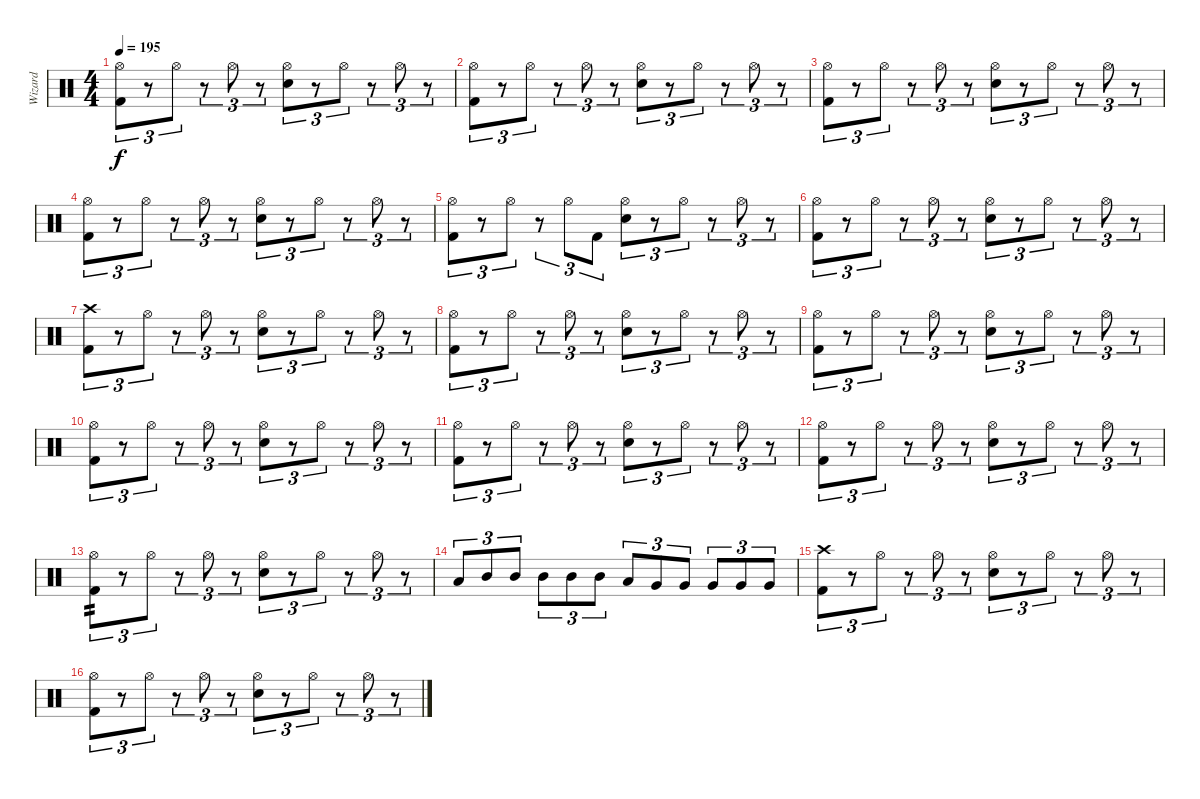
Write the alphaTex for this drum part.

\track ("Wizard" "Wizard") {instrument percussion}
\staff {score}
\articulation defaults
\ts (4 4)
\tempo 195
\clef neutral
\ks c
("Hi-Hat (open)" "Kick (hit) 2").8{tu (3 2) dy f} r.8{tu (3 2)} "Hi-Hat (open)".8{tu (3 2)} r.8{tu (3 2)} "Hi-Hat (open)".8{tu (3 2)} r.8{tu (3 2)} ("Hi-Hat (open)" "Snare (hit) 2").8{tu (3 2)} r.8{tu (3 2)} "Hi-Hat (open)".8{tu (3 2)} r.8{tu (3 2)} "Hi-Hat (open)".8{tu (3 2)} r.8{tu (3 2)} |
("Hi-Hat (open)" "Kick (hit) 2").8{tu (3 2)} r.8{tu (3 2)} "Hi-Hat (open)".8{tu (3 2)} r.8{tu (3 2)} "Hi-Hat (open)".8{tu (3 2)} r.8{tu (3 2)} ("Hi-Hat (open)" "Snare (hit) 2").8{tu (3 2)} r.8{tu (3 2)} "Hi-Hat (open)".8{tu (3 2)} r.8{tu (3 2)} "Hi-Hat (open)".8{tu (3 2)} r.8{tu (3 2)} |
("Hi-Hat (open)" "Kick (hit) 2").8{tu (3 2)} r.8{tu (3 2)} "Hi-Hat (open)".8{tu (3 2)} r.8{tu (3 2)} "Hi-Hat (open)".8{tu (3 2)} r.8{tu (3 2)} ("Hi-Hat (open)" "Snare (hit) 2").8{tu (3 2)} r.8{tu (3 2)} "Hi-Hat (open)".8{tu (3 2)} r.8{tu (3 2)} "Hi-Hat (open)".8{tu (3 2)} r.8{tu (3 2)} |
("Hi-Hat (open)" "Kick (hit) 2").8{tu (3 2)} r.8{tu (3 2)} "Hi-Hat (open)".8{tu (3 2)} r.8{tu (3 2)} "Hi-Hat (open)".8{tu (3 2)} r.8{tu (3 2)} ("Hi-Hat (open)" "Snare (hit) 2").8{tu (3 2)} r.8{tu (3 2)} "Hi-Hat (open)".8{tu (3 2)} r.8{tu (3 2)} "Hi-Hat (open)".8{tu (3 2)} r.8{tu (3 2)} |
("Hi-Hat (open)" "Kick (hit) 2").8{tu (3 2)} r.8{tu (3 2)} "Hi-Hat (open)".8{tu (3 2)} r.8{tu (3 2)} "Hi-Hat (open)".8{tu (3 2)} "Kick (hit) 2".8{tu (3 2)} ("Hi-Hat (open)" "Snare (hit) 2").8{tu (3 2)} r.8{tu (3 2)} "Hi-Hat (open)".8{tu (3 2)} r.8{tu (3 2)} "Hi-Hat (open)".8{tu (3 2)} r.8{tu (3 2)} |
("Hi-Hat (open)" "Kick (hit) 2").8{tu (3 2)} r.8{tu (3 2)} "Hi-Hat (open)".8{tu (3 2)} r.8{tu (3 2)} "Hi-Hat (open)".8{tu (3 2)} r.8{tu (3 2)} ("Hi-Hat (open)" "Snare (hit) 2").8{tu (3 2)} r.8{tu (3 2)} "Hi-Hat (open)".8{tu (3 2)} r.8{tu (3 2)} "Hi-Hat (open)".8{tu (3 2)} r.8{tu (3 2)} |
("Crash high (hit)" "Kick (hit) 2").8{tu (3 2)} r.8{tu (3 2)} "Hi-Hat (open)".8{tu (3 2)} r.8{tu (3 2)} "Hi-Hat (open)".8{tu (3 2)} r.8{tu (3 2)} ("Hi-Hat (open)" "Snare (hit) 2").8{tu (3 2)} r.8{tu (3 2)} "Hi-Hat (open)".8{tu (3 2)} r.8{tu (3 2)} "Hi-Hat (open)".8{tu (3 2)} r.8{tu (3 2)} |
("Hi-Hat (open)" "Kick (hit) 2").8{tu (3 2)} r.8{tu (3 2)} "Hi-Hat (open)".8{tu (3 2)} r.8{tu (3 2)} "Hi-Hat (open)".8{tu (3 2)} r.8{tu (3 2)} ("Hi-Hat (open)" "Snare (hit) 2").8{tu (3 2)} r.8{tu (3 2)} "Hi-Hat (open)".8{tu (3 2)} r.8{tu (3 2)} "Hi-Hat (open)".8{tu (3 2)} r.8{tu (3 2)} |
("Hi-Hat (open)" "Kick (hit) 2").8{tu (3 2)} r.8{tu (3 2)} "Hi-Hat (open)".8{tu (3 2)} r.8{tu (3 2)} "Hi-Hat (open)".8{tu (3 2)} r.8{tu (3 2)} ("Hi-Hat (open)" "Snare (hit) 2").8{tu (3 2)} r.8{tu (3 2)} "Hi-Hat (open)".8{tu (3 2)} r.8{tu (3 2)} "Hi-Hat (open)".8{tu (3 2)} r.8{tu (3 2)} |
("Hi-Hat (open)" "Kick (hit) 2").8{tu (3 2)} r.8{tu (3 2)} "Hi-Hat (open)".8{tu (3 2)} r.8{tu (3 2)} "Hi-Hat (open)".8{tu (3 2)} r.8{tu (3 2)} ("Hi-Hat (open)" "Snare (hit) 2").8{tu (3 2)} r.8{tu (3 2)} "Hi-Hat (open)".8{tu (3 2)} r.8{tu (3 2)} "Hi-Hat (open)".8{tu (3 2)} r.8{tu (3 2)} |
("Hi-Hat (open)" "Kick (hit) 2").8{tu (3 2)} r.8{tu (3 2)} "Hi-Hat (open)".8{tu (3 2)} r.8{tu (3 2)} "Hi-Hat (open)".8{tu (3 2)} r.8{tu (3 2)} ("Hi-Hat (open)" "Snare (hit) 2").8{tu (3 2)} r.8{tu (3 2)} "Hi-Hat (open)".8{tu (3 2)} r.8{tu (3 2)} "Hi-Hat (open)".8{tu (3 2)} r.8{tu (3 2)} |
("Hi-Hat (open)" "Kick (hit) 2").8{tu (3 2)} r.8{tu (3 2)} "Hi-Hat (open)".8{tu (3 2)} r.8{tu (3 2)} "Hi-Hat (open)".8{tu (3 2)} r.8{tu (3 2)} ("Hi-Hat (open)" "Snare (hit) 2").8{tu (3 2)} r.8{tu (3 2)} "Hi-Hat (open)".8{tu (3 2)} r.8{tu (3 2)} "Hi-Hat (open)".8{tu (3 2)} r.8{tu (3 2)} |
("Hi-Hat (open)" "Kick (hit) 2").8{tu (3 2) tp 2} r.8{tu (3 2)} "Hi-Hat (open)".8{tu (3 2)} r.8{tu (3 2)} "Hi-Hat (open)".8{tu (3 2)} r.8{tu (3 2)} ("Hi-Hat (open)" "Snare (hit) 2").8{tu (3 2)} r.8{tu (3 2)} "Hi-Hat (open)".8{tu (3 2)} r.8{tu (3 2)} "Hi-Hat (open)".8{tu (3 2)} r.8{tu (3 2)} |
"Low Tom (hit)".8{tu (3 2)} "Mid Tom (hit)".8{tu (3 2)} "Mid Tom (hit)".8{tu (3 2)} "Mid Tom (hit)".8{tu (3 2)} "Mid Tom (hit)".8{tu (3 2)} "Mid Tom (hit)".8{tu (3 2)} "Low Tom (hit)".8{tu (3 2)} "Very Low Tom (hit)".8{tu (3 2)} "Very Low Tom (hit)".8{tu (3 2)} "Very Low Tom (hit)".8{tu (3 2)} "Very Low Tom (hit)".8{tu (3 2)} "Very Low Tom (hit)".8{tu (3 2)} |
("Crash high (hit)" "Kick (hit) 2").8{tu (3 2)} r.8{tu (3 2)} "Hi-Hat (open)".8{tu (3 2)} r.8{tu (3 2)} "Hi-Hat (open)".8{tu (3 2)} r.8{tu (3 2)} ("Hi-Hat (open)" "Snare (hit) 2").8{tu (3 2)} r.8{tu (3 2)} "Hi-Hat (open)".8{tu (3 2)} r.8{tu (3 2)} "Hi-Hat (open)".8{tu (3 2)} r.8{tu (3 2)} |
("Hi-Hat (open)" "Kick (hit) 2").8{tu (3 2)} r.8{tu (3 2)} "Hi-Hat (open)".8{tu (3 2)} r.8{tu (3 2)} "Hi-Hat (open)".8{tu (3 2)} r.8{tu (3 2)} ("Hi-Hat (open)" "Snare (hit) 2").8{tu (3 2)} r.8{tu (3 2)} "Hi-Hat (open)".8{tu (3 2)} r.8{tu (3 2)} "Hi-Hat (open)".8{tu (3 2)} r.8{tu (3 2)}
